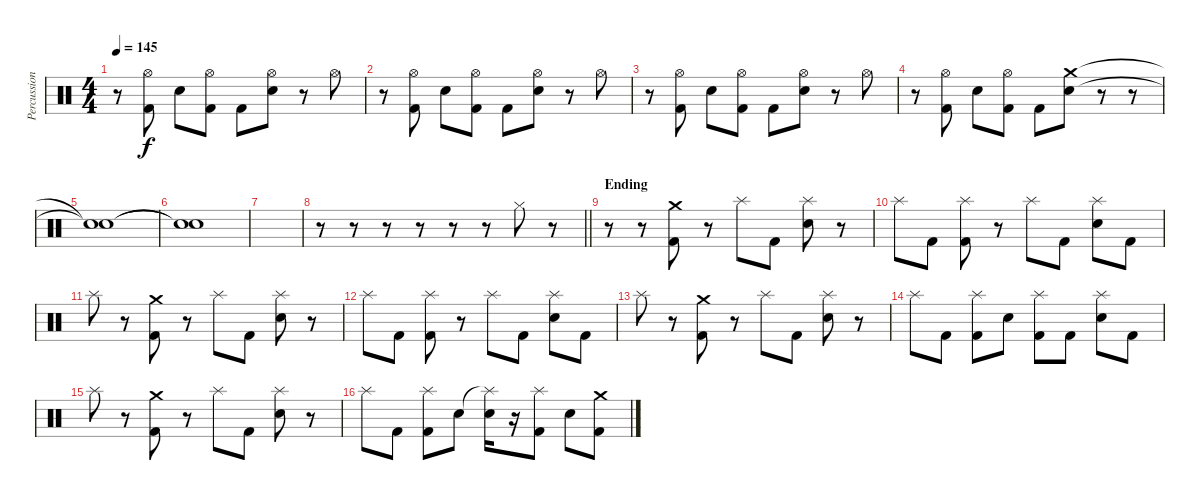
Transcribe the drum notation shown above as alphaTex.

\track ("Percussion" "Percussion") {instrument percussion}
\staff {score}
\articulation defaults
\ts (4 4)
\tempo 145
\clef neutral
\ks c
r.8{dy f} ("Hi-Hat (open)" "Kick (hit) 2").8 "Electric Snare (hit)".8 ("Hi-Hat (open)" "Kick (hit) 2").8 "Kick (hit) 2".8 ("Hi-Hat (open)" "Electric Snare (hit)").8 r.8 "Hi-Hat (open)".8 |
r.8 ("Hi-Hat (open)" "Kick (hit) 2").8 "Electric Snare (hit)".8 ("Hi-Hat (open)" "Kick (hit) 2").8 "Kick (hit) 2".8 ("Hi-Hat (open)" "Electric Snare (hit)").8 r.8 "Hi-Hat (open)".8 |
r.8 ("Hi-Hat (open)" "Kick (hit) 2").8 "Electric Snare (hit)".8 ("Hi-Hat (open)" "Kick (hit) 2").8 "Kick (hit) 2".8 ("Hi-Hat (open)" "Electric Snare (hit)").8 r.8 "Hi-Hat (open)".8 |
r.8 ("Hi-Hat (open)" "Kick (hit) 2").8 "Electric Snare (hit)".8 ("Hi-Hat (open)" "Kick (hit) 2").8 "Kick (hit) 2".8 ("Crash medium (hit)" "Electric Snare (hit)").8 r.8 r.8 |
("Snare (hit)"{t} "Snare (hit)"{t}).1 |
("Snare (hit)"{t} "Snare (hit)"{t}).1 |
|
\barLineRight lightlight
r.8 r.8 r.8 r.8 r.8 r.8 "Hi-Hat (closed)".8 r.8 |
\section ("" "Ending")
r.8 r.8 ("Crash medium (hit)" "Kick (hit) 2").8 r.8 "Splash (hit)".8 "Kick (hit) 2".8 ("Splash (hit)" "Electric Snare (hit)").8 r.8 |
"Splash (hit)".8 "Kick (hit) 2".8 ("Splash (hit)" "Kick (hit) 2").8 r.8 "Splash (hit)".8 "Kick (hit) 2".8 ("Splash (hit)" "Electric Snare (hit)").8 "Kick (hit) 2".8 |
"Splash (hit)".8 r.8 ("Crash medium (hit)" "Kick (hit) 2").8 r.8 "Splash (hit)".8 "Kick (hit) 2".8 ("Splash (hit)" "Electric Snare (hit)").8 r.8 |
"Splash (hit)".8 "Kick (hit) 2".8 ("Splash (hit)" "Kick (hit) 2").8 r.8 "Splash (hit)".8 "Kick (hit) 2".8 ("Splash (hit)" "Electric Snare (hit)").8 "Kick (hit) 2".8 |
"Splash (hit)".8 r.8 ("Crash medium (hit)" "Kick (hit) 2").8 r.8 "Splash (hit)".8 "Kick (hit) 2".8 ("Splash (hit)" "Electric Snare (hit)").8 r.8 |
"Splash (hit)".8 "Kick (hit) 2".8 ("Splash (hit)" "Kick (hit) 2").8 "Electric Snare (hit)".8 ("Splash (hit)" "Kick (hit) 2").8 "Kick (hit) 2".8 ("Splash (hit)" "Electric Snare (hit)").8 "Kick (hit) 2".8 |
"Splash (hit)".8 r.8 ("Crash medium (hit)" "Kick (hit) 2").8 r.8 "Splash (hit)".8 "Kick (hit) 2".8 ("Splash (hit)" "Electric Snare (hit)").8 r.8 |
"Splash (hit)".8 "Kick (hit) 2".8 ("Splash (hit)" "Kick (hit) 2").8 "Electric Snare (hit)".8 ("Splash (hit)"{t} "Electric Snare (hit)").16 r.16 ("Splash (hit)" "Kick (hit) 2").8 "Electric Snare (hit)".8 ("Crash medium (hit)" "Kick (hit) 2").8
